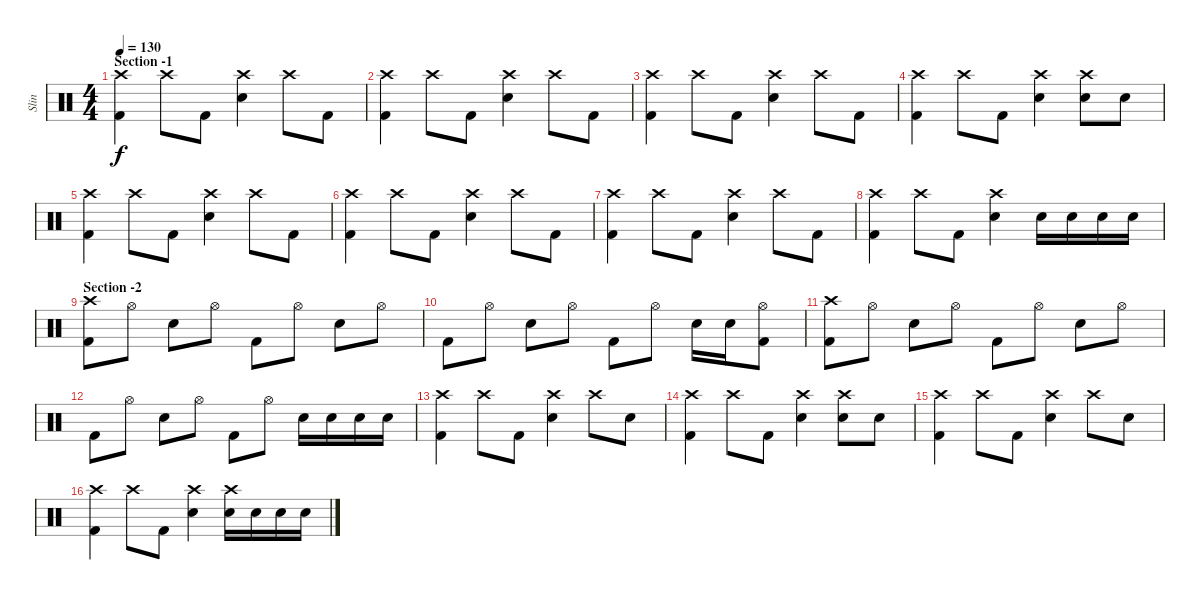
\track ("Slin" "Slin") {instrument percussion}
\staff {score}
\articulation defaults
\ts (4 4)
\section ("" "Section -1")
\tempo 130
\clef neutral
\ks c
("Crash high (hit)" "Kick (hit) 2").4{dy f} "Crash high (hit)".8 "Kick (hit) 2".8 ("Crash high (hit)" "Snare (hit) 2").4 "Crash high (hit)".8 "Kick (hit) 2".8 |
("Crash high (hit)" "Kick (hit) 2").4 "Crash high (hit)".8 "Kick (hit) 2".8 ("Crash high (hit)" "Snare (hit) 2").4 "Crash high (hit)".8 "Kick (hit) 2".8 |
("Crash high (hit)" "Kick (hit) 2").4 "Crash high (hit)".8 "Kick (hit) 2".8 ("Crash high (hit)" "Snare (hit) 2").4 "Crash high (hit)".8 "Kick (hit) 2".8 |
("Crash high (hit)" "Kick (hit) 2").4 "Crash high (hit)".8 "Kick (hit) 2".8 ("Crash high (hit)" "Snare (hit) 2").4 ("Crash high (hit)" "Snare (hit) 2").8 "Snare (hit) 2".8 |
("Crash high (hit)" "Kick (hit) 2").4 "Crash high (hit)".8 "Kick (hit) 2".8 ("Crash high (hit)" "Snare (hit) 2").4 "Crash high (hit)".8 "Kick (hit) 2".8 |
("Crash high (hit)" "Kick (hit) 2").4 "Crash high (hit)".8 "Kick (hit) 2".8 ("Crash high (hit)" "Snare (hit) 2").4 "Crash high (hit)".8 "Kick (hit) 2".8 |
("Crash high (hit)" "Kick (hit) 2").4 "Crash high (hit)".8 "Kick (hit) 2".8 ("Crash high (hit)" "Snare (hit) 2").4 "Crash high (hit)".8 "Kick (hit) 2".8 |
("Crash high (hit)" "Kick (hit) 2").4 "Crash high (hit)".8 "Kick (hit) 2".8 ("Crash high (hit)" "Snare (hit) 2").4 "Snare (hit) 2".16 "Snare (hit) 2".16 "Snare (hit) 2".16 "Snare (hit) 2".16 |
\section ("" "Section -2")
("Crash high (hit)" "Kick (hit) 2").8 "Hi-Hat (open)".8 "Snare (hit) 2".8 "Hi-Hat (open)".8 "Kick (hit) 2".8 "Hi-Hat (open)".8 "Snare (hit) 2".8 "Hi-Hat (open)".8 |
"Kick (hit) 2".8 "Hi-Hat (open)".8 "Snare (hit) 2".8 "Hi-Hat (open)".8 "Kick (hit) 2".8 "Hi-Hat (open)".8 "Snare (hit) 2".16 "Snare (hit) 2".16 ("Hi-Hat (open)" "Kick (hit) 2").8 |
("Crash high (hit)" "Kick (hit) 2").8 "Hi-Hat (open)".8 "Snare (hit) 2".8 "Hi-Hat (open)".8 "Kick (hit) 2".8 "Hi-Hat (open)".8 "Snare (hit) 2".8 "Hi-Hat (open)".8 |
"Kick (hit) 2".8 "Hi-Hat (open)".8 "Snare (hit) 2".8 "Hi-Hat (open)".8 "Kick (hit) 2".8 "Hi-Hat (open)".8 "Snare (hit) 2".16 "Snare (hit) 2".16 "Snare (hit) 2".16 "Snare (hit) 2".16 |
("Crash high (hit)" "Kick (hit) 2").4 "Crash high (hit)".8 "Kick (hit) 2".8 ("Crash high (hit)" "Snare (hit) 2").4 "Crash high (hit)".8 "Snare (hit) 2".8 |
("Crash high (hit)" "Kick (hit) 2").4 "Crash high (hit)".8 "Kick (hit) 2".8 ("Crash high (hit)" "Snare (hit) 2").4 ("Crash high (hit)" "Snare (hit) 2").8 "Snare (hit) 2".8 |
("Crash high (hit)" "Kick (hit) 2").4 "Crash high (hit)".8 "Kick (hit) 2".8 ("Crash high (hit)" "Snare (hit) 2").4 "Crash high (hit)".8 "Snare (hit) 2".8 |
("Crash high (hit)" "Kick (hit) 2").4 "Crash high (hit)".8 "Kick (hit) 2".8 ("Crash high (hit)" "Snare (hit) 2").4 ("Crash high (hit)" "Snare (hit) 2").16 "Snare (hit) 2".16 "Snare (hit) 2".16 "Snare (hit) 2".16
